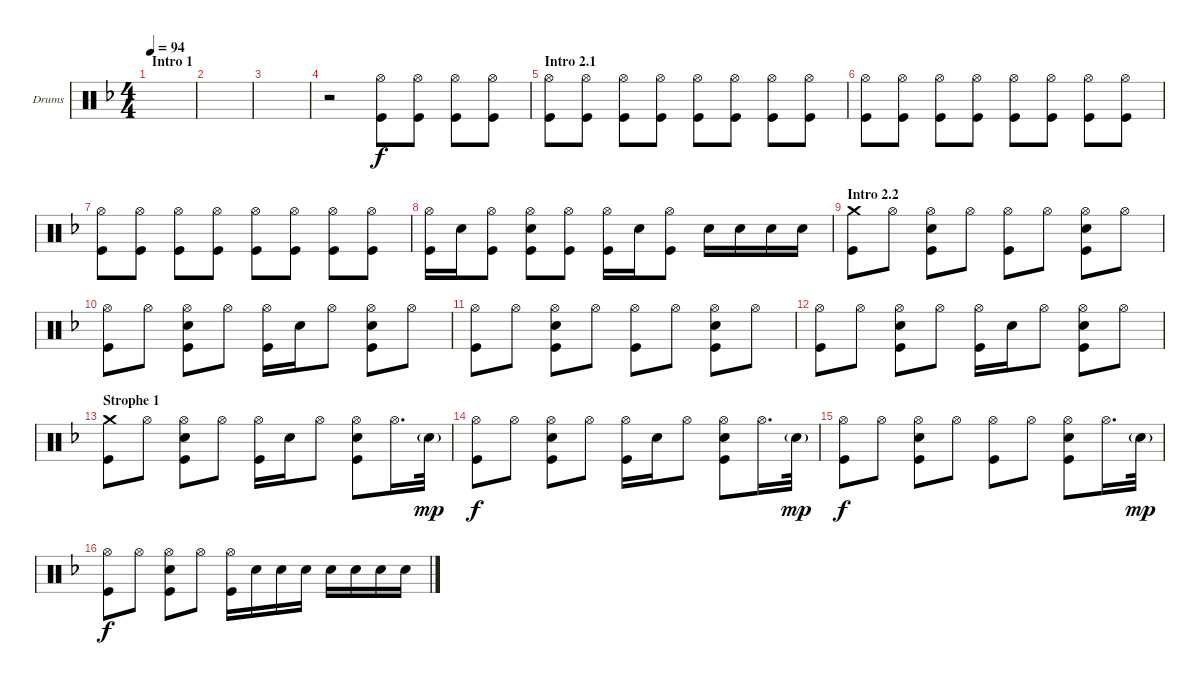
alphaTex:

\defaultSystemsLayout 4
\bracketExtendMode groupsimilarinstruments
\firstSystemTrackNameOrientation horizontal
\otherSystemsTrackNameOrientation horizontal
\track ("Drumkit" "Drums") {instrument percussion}
\staff {score}
\articulation defaults
\ts (4 4)
\section ("" "Intro 1")
\tempo 94
\clef neutral
\ks dminor
|
|
|
r.2 ("Kick (hit)" "Hi-Hat (open)").8 ("Kick (hit)" "Hi-Hat (open)").8 ("Kick (hit)" "Hi-Hat (open)").8 ("Kick (hit)" "Hi-Hat (open)").8 |
\section ("" "Intro 2.1")
("Kick (hit)" "Hi-Hat (open)").8 ("Kick (hit)" "Hi-Hat (open)").8 ("Kick (hit)" "Hi-Hat (open)").8 ("Kick (hit)" "Hi-Hat (open)").8 ("Kick (hit)" "Hi-Hat (open)").8 ("Kick (hit)" "Hi-Hat (open)").8 ("Kick (hit)" "Hi-Hat (open)").8 ("Kick (hit)" "Hi-Hat (open)").8 |
("Kick (hit)" "Hi-Hat (open)").8 ("Kick (hit)" "Hi-Hat (open)").8 ("Kick (hit)" "Hi-Hat (open)").8 ("Kick (hit)" "Hi-Hat (open)").8 ("Kick (hit)" "Hi-Hat (open)").8 ("Kick (hit)" "Hi-Hat (open)").8 ("Kick (hit)" "Hi-Hat (open)").8 ("Kick (hit)" "Hi-Hat (open)").8 |
("Kick (hit)" "Hi-Hat (open)").8 ("Kick (hit)" "Hi-Hat (open)").8 ("Kick (hit)" "Hi-Hat (open)").8 ("Kick (hit)" "Hi-Hat (open)").8 ("Kick (hit)" "Hi-Hat (open)").8 ("Kick (hit)" "Hi-Hat (open)").8 ("Kick (hit)" "Hi-Hat (open)").8 ("Kick (hit)" "Hi-Hat (open)").8 |
("Kick (hit)" "Hi-Hat (open)").16 "Snare (hit) 2".16 ("Hi-Hat (open)" "Kick (hit)").8 ("Hi-Hat (open)" "Snare (hit) 2" "Kick (hit)").8 ("Kick (hit)" "Hi-Hat (open)").8 ("Kick (hit)" "Hi-Hat (open)").16 "Snare (hit) 2".16 ("Hi-Hat (open)" "Kick (hit)").8 "Snare (hit) 2".16 "Snare (hit) 2".16 "Snare (hit) 2".16 "Snare (hit) 2".16 |
\section ("" "Intro 2.2")
("Kick (hit)" "Crash medium (hit)").8 "Hi-Hat (open)".8 ("Kick (hit)" "Snare (hit) 2" "Hi-Hat (open)").8 "Hi-Hat (open)".8 ("Hi-Hat (open)" "Kick (hit)").8 "Hi-Hat (open)".8 ("Hi-Hat (open)" "Kick (hit)" "Snare (hit) 2").8 "Hi-Hat (open)".8 |
("Kick (hit)" "Hi-Hat (open)").8 "Hi-Hat (open)".8 ("Kick (hit)" "Snare (hit) 2" "Hi-Hat (open)").8 "Hi-Hat (open)".8 ("Hi-Hat (open)" "Kick (hit)").16 "Snare (hit) 2".16 "Hi-Hat (open)".8 ("Hi-Hat (open)" "Kick (hit)" "Snare (hit) 2").8 "Hi-Hat (open)".8 |
("Kick (hit)" "Hi-Hat (open)").8 "Hi-Hat (open)".8 ("Kick (hit)" "Snare (hit) 2" "Hi-Hat (open)").8 "Hi-Hat (open)".8 ("Hi-Hat (open)" "Kick (hit)").8 "Hi-Hat (open)".8 ("Hi-Hat (open)" "Kick (hit)" "Snare (hit) 2").8 "Hi-Hat (open)".8 |
("Kick (hit)" "Hi-Hat (open)").8 "Hi-Hat (open)".8 ("Kick (hit)" "Snare (hit) 2" "Hi-Hat (open)").8 "Hi-Hat (open)".8 ("Hi-Hat (open)" "Kick (hit)").16 "Snare (hit) 2".16 "Hi-Hat (open)".8 ("Hi-Hat (open)" "Kick (hit)" "Snare (hit) 2").8 "Hi-Hat (open)".8 |
\section ("" "Strophe 1")
("Kick (hit)" "Crash medium (hit)").8 "Hi-Hat (open)".8 ("Kick (hit)" "Snare (hit) 2" "Hi-Hat (open)").8 "Hi-Hat (open)".8 ("Hi-Hat (open)" "Kick (hit)").16 "Snare (hit) 2".16 "Hi-Hat (open)".8 ("Hi-Hat (open)" "Kick (hit)" "Snare (hit) 2").8 "Hi-Hat (open)".16{d} "Snare (hit) 2"{g}.32{dy mp} |
("Kick (hit)" "Hi-Hat (open)").8{dy f} "Hi-Hat (open)".8 ("Kick (hit)" "Snare (hit) 2" "Hi-Hat (open)").8 "Hi-Hat (open)".8 ("Hi-Hat (open)" "Kick (hit)").16 "Snare (hit) 2".16 "Hi-Hat (open)".8 ("Hi-Hat (open)" "Kick (hit)" "Snare (hit) 2").8 "Hi-Hat (open)".16{d} "Snare (hit) 2"{g}.32{dy mp} |
("Kick (hit)" "Hi-Hat (open)").8{dy f} "Hi-Hat (open)".8 ("Kick (hit)" "Snare (hit) 2" "Hi-Hat (open)").8 "Hi-Hat (open)".8 ("Hi-Hat (open)" "Kick (hit)").8 "Hi-Hat (open)".8 ("Hi-Hat (open)" "Kick (hit)" "Snare (hit) 2").8 "Hi-Hat (open)".16{d} "Snare (hit) 2"{g}.32{dy mp} |
("Kick (hit)" "Hi-Hat (open)").8{dy f} "Hi-Hat (open)".8 ("Kick (hit)" "Snare (hit) 2" "Hi-Hat (open)").8 "Hi-Hat (open)".8 ("Hi-Hat (open)" "Kick (hit)").16 "Snare (hit) 2".16 "Snare (hit) 2".16 "Snare (hit) 2".16 "Snare (hit) 2".16 "Snare (hit) 2".16 "Snare (hit) 2".16 "Snare (hit) 2".16
